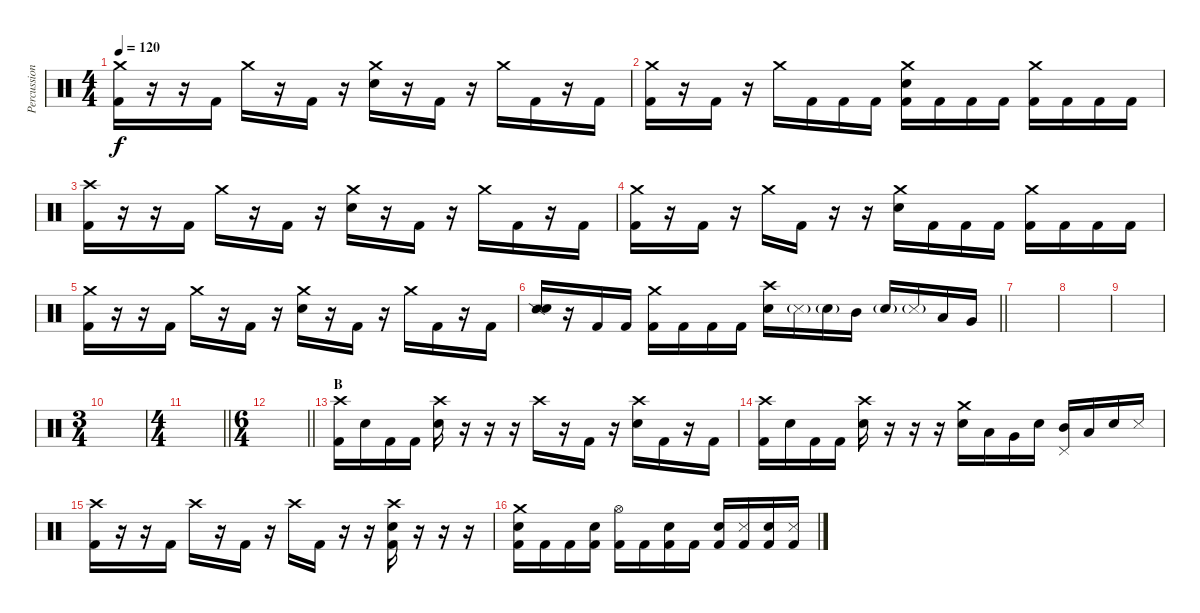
\track ("Percussion" "Percussion") {instrument percussion}
\staff {score}
\articulation defaults
\ts (4 4)
\tempo 120
\clef neutral
\ks c
("Crash medium (hit)" "Kick (hit) 2").16{dy f} r.16 r.16 "Kick (hit) 2".16 "Crash medium (hit)".16 r.16 "Kick (hit) 2".16 r.16 ("Crash medium (hit)" "Snare (hit) 2").16 r.16 "Kick (hit) 2".16 r.16 "Crash medium (hit)".16 "Kick (hit) 2".16 r.16 "Kick (hit) 2".16 |
("Crash medium (hit)" "Kick (hit) 2").16 r.16 "Kick (hit) 2".16 r.16 "Crash medium (hit)".16 "Kick (hit) 2".16 "Kick (hit) 2".16 "Kick (hit) 2".16 ("Crash medium (hit)" "Snare (hit) 2" "Kick (hit) 2").16 "Kick (hit) 2".16 "Kick (hit) 2".16 "Kick (hit) 2".16 ("Crash medium (hit)" "Kick (hit) 2").16 "Kick (hit) 2".16 "Kick (hit) 2".16 "Kick (hit) 2".16 |
("Crash high (hit)" "Kick (hit) 2").16 r.16 r.16 "Kick (hit) 2".16 "Crash medium (hit)".16 r.16 "Kick (hit) 2".16 r.16 ("Crash medium (hit)" "Snare (hit) 2").16 r.16 "Kick (hit) 2".16 r.16 "Crash medium (hit)".16 "Kick (hit) 2".16 r.16 "Kick (hit) 2".16 |
("Crash medium (hit)" "Kick (hit) 2").16 r.16 "Kick (hit) 2".16 r.16 "Crash medium (hit)".16 "Kick (hit) 2".16 r.16 r.16 ("Crash medium (hit)" "Snare (hit) 2").16 "Kick (hit) 2".16 "Kick (hit) 2".16 "Kick (hit) 2".16 ("Crash medium (hit)" "Kick (hit) 2").16 "Kick (hit) 2".16 "Kick (hit) 2".16 "Kick (hit) 2".16 |
("Crash medium (hit)" "Kick (hit) 2").16 r.16 r.16 "Kick (hit) 2".16 "Crash medium (hit)".16 r.16 "Kick (hit) 2".16 r.16 ("Crash medium (hit)" "Snare (hit) 2").16 r.16 "Kick (hit) 2".16 r.16 "Crash medium (hit)".16 "Kick (hit) 2".16 r.16 "Kick (hit) 2".16 |
\barLineRight lightlight
("Snare (side stick) 2" "Snare (hit) 2").16 r.16 "Kick (hit) 2".16 "Kick (hit) 2".16 ("Crash medium (hit)" "Kick (hit) 2").16 "Kick (hit) 2".16 "Kick (hit) 2".16 "Kick (hit) 2".16 ("Crash high (hit)" "Snare (hit) 2").16 "Metronome (hit)"{g}.16 "Snare (hit) 2"{g}.16 "Mid Tom (hit)".16 "Snare (hit) 2"{g}.16 "Metronome (hit)"{g}.16 "Low Tom (hit)".16 "Very Low Tom (hit)".16 |
|
|
|
\ts (3 4)
|
\ts (4 4)
\barLineRight lightlight
|
\ts (6 4)
\barLineRight lightlight
|
\section ("" "B")
("Crash high (hit)" "Kick (hit) 2").16 "Snare (hit) 2".16 "Kick (hit) 2".16 "Kick (hit) 2".16 ("Crash high (hit)" "Snare (hit) 2").16 r.16 r.16 r.16 "Crash high (hit)".16 r.16 "Kick (hit) 2".16 r.16 ("Crash high (hit)" "Snare (hit) 2").16 "Kick (hit) 2".16 r.16 "Kick (hit) 2".16 |
("Crash high (hit)" "Kick (hit) 2").16 "Snare (hit) 2".16 "Kick (hit) 2".16 "Kick (hit) 2".16 ("Crash high (hit)" "Snare (hit) 2").16 r.16 r.16 r.16 ("Crash medium (hit)" "Snare (hit) 2").16 "Low Tom (hit)".16 "Very Low Tom (hit)".16 "Snare (hit) 2".16 ("Pedal Hi-Hat (hit)" "Mid Tom (hit)").16 "Low Tom (hit)".16 "Snare (hit) 2".16 "Metronome (hit)".16 |
("Crash high (hit)" "Kick (hit) 2").16 r.16 r.16 "Kick (hit) 2".16 "Crash high (hit)".16 r.16 "Kick (hit) 2".16 r.16 "Crash high (hit)".16 "Kick (hit) 2".16 r.16 r.16 ("Crash high (hit)" "Snare (hit) 2" "Kick (hit) 2").16 r.16 r.16 r.16 |
("Crash medium (hit)" "Snare (hit) 2" "Kick (hit) 2").16 "Kick (hit) 2".16 "Kick (hit) 2".16 ("Snare (hit) 2" "Kick (hit) 2").16 ("Hi-Hat (open)" "Kick (hit) 2").16 "Kick (hit) 2".16 ("Snare (hit) 2" "Kick (hit) 2").16 "Kick (hit) 2".16 ("Snare (hit) 2" "Kick (hit) 2").16 ("Metronome (hit)" "Kick (hit) 2").16 ("Snare (hit) 2" "Kick (hit) 2").16 ("Metronome (hit)" "Kick (hit) 2").16
